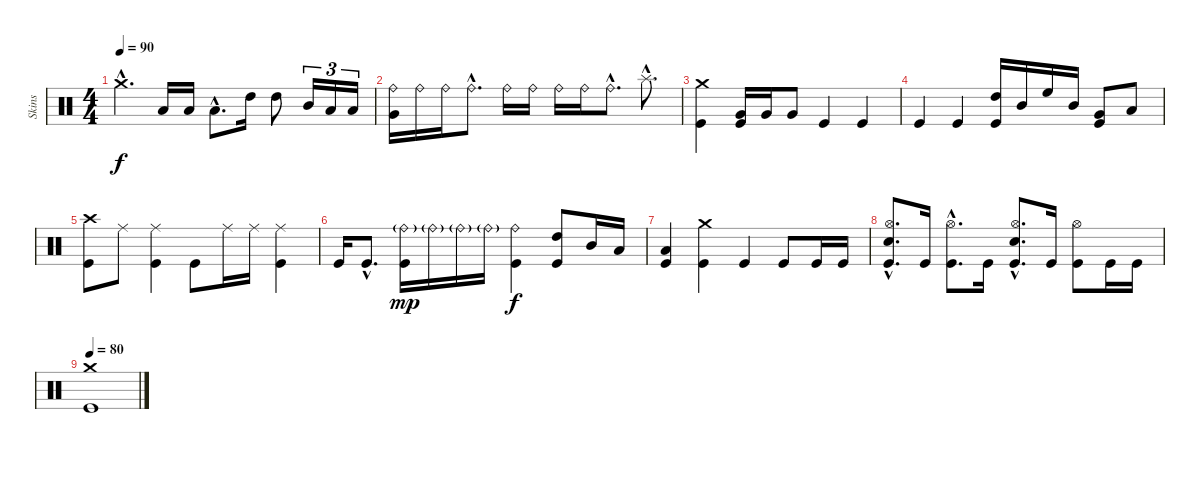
\track ("Skins" "Skins") {instrument percussion}
\staff {score}
\articulation defaults
\ts (4 4)
\tempo 90
\clef neutral
\ks c "Crash medium (hit)"{hac}.4{d dy f} "Low Floor Tom (hit)".16 "Low Floor Tom (hit)".16 "Low Floor Tom (hit)"{hac}.8{d} "High Tom (hit)".16 "High Tom (hit)".8 "Mid Tom (hit)".16{tu (3 2)} "Low Tom (hit)".16{tu (3 2)} "Low Tom (hit)".16{tu (3 2)}
|
("Ride (bell)" "Very Low Tom (hit)").16 "Ride (bell)".16 "Ride (bell)".16 "Ride (bell)"{hac}.8{d} "Ride (bell)".16 "Ride (bell)".16 "Ride (bell)".16 "Ride (bell)".16 "Ride (bell)"{hac}.8{d} "Splash (hit)"{hac}.8{d} |
("Crash medium (hit)" "Kick (hit)").4 ("Very Low Tom (hit)" "Kick (hit)").16 "Very Low Tom (hit)".16 "Very Low Tom (hit)".8 "Kick (hit)".4 "Kick (hit)".4 |
"Kick (hit)".4 "Kick (hit)".4 ("High Tom (hit)" "Kick (hit)").16 "Mid Tom (hit)".16 "High Floor Tom (hit)".16 "Mid Tom (hit)".16 ("Very Low Tom (hit)" "Kick (hit)").8 "Low Floor Tom (hit)".8 |
("Crash high (hit)" "Kick (hit)").8 "Ride (middle)".8 ("Ride (middle)" "Kick (hit)").4 "Kick (hit)".8 "Ride (middle)".16 "Ride (middle)".16 ("Ride (middle)" "Kick (hit)").4 |
"Kick (hit)".16 "Kick (hit)"{hac}.8{d} ("Ride (bell)"{g} "Kick (hit)").16{dy mp} "Ride (bell)"{g}.16 "Ride (bell)"{g}.16 "Ride (bell)"{g}.16 ("Ride (bell)" "Kick (hit)").4{dy f} ("High Tom (hit)" "Kick (hit)").8 "Mid Tom (hit)".16 "Low Tom (hit)".16 |
("Low Floor Tom (hit)" "Kick (hit)").4 ("Crash medium (hit)" "Kick (hit)").4 "Kick (hit)".4 "Kick (hit)".8 "Kick (hit)".16 "Kick (hit)".16 |
("Hi-Hat (open)"{hac} "Electric Snare (hit)"{hac} "Kick (hit)"{hac}).8{d} "Kick (hit)".16 ("Hi-Hat (open)"{hac} "Kick (hit)"{hac}).8{d} "Kick (hit)".16 ("Hi-Hat (open)"{hac} "Electric Snare (hit)"{hac} "Kick (hit)"{hac}).8{d} "Kick (hit)".16 ("Hi-Hat (open)" "Kick (hit)").8 "Kick (hit)".16 "Kick (hit)".16 |
\tempo 80
("Crash medium (hit)" "Kick (hit)").1
